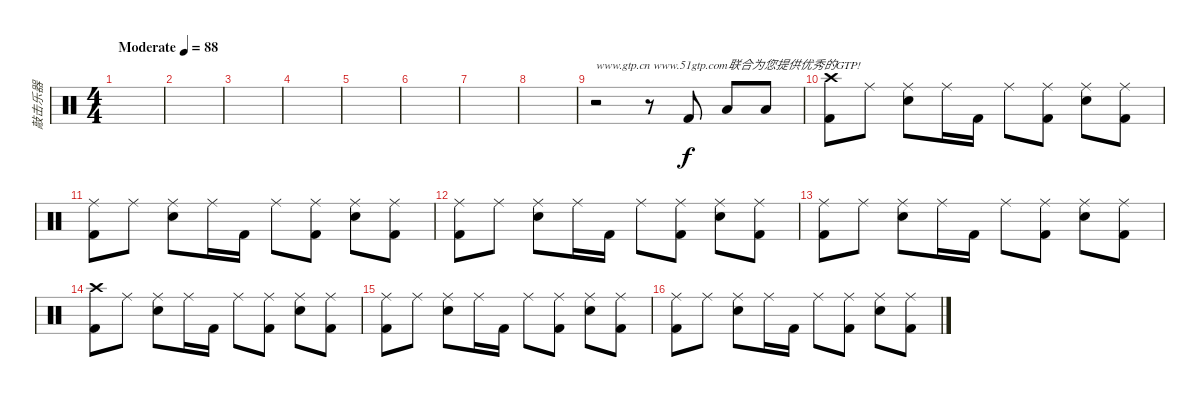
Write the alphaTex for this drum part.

\track ("敲击乐器" "敲击乐器") {instrument percussion}
\staff {score}
\articulation defaults
\ts (4 4)
\tempo (88 "Moderate")
\clef neutral
\ks c
|
|
|
|
|
|
|
|
r.2{txt "www.gtp.cn www.51gtp.com联合为您提供优秀的GTP!"} r.8 "Kick (hit) 2".8 "Low Floor Tom (hit)".8 "Low Tom (hit)".8 |
("Crash high (hit)" "Kick (hit) 2").8 "Ride (middle)".8 ("Ride (middle)" "Electric Snare (hit)").8 "Ride (middle)".16 "Kick (hit) 2".16 "Ride (middle)".8 ("Ride (middle)" "Kick (hit) 2").8 ("Ride (middle)" "Electric Snare (hit)").8 ("Ride (middle)" "Kick (hit) 2").8 |
("Ride (middle)" "Kick (hit) 2").8 "Ride (middle)".8 ("Ride (middle)" "Electric Snare (hit)").8 "Ride (middle)".16 "Kick (hit) 2".16 "Ride (middle)".8 ("Ride (middle)" "Kick (hit) 2").8 ("Ride (middle)" "Electric Snare (hit)").8 ("Ride (middle)" "Kick (hit) 2").8 |
("Ride (middle)" "Kick (hit) 2").8 "Ride (middle)".8 ("Ride (middle)" "Electric Snare (hit)").8 "Ride (middle)".16 "Kick (hit) 2".16 "Ride (middle)".8 ("Ride (middle)" "Kick (hit) 2").8 ("Ride (middle)" "Electric Snare (hit)").8 ("Ride (middle)" "Kick (hit) 2").8 |
("Ride (middle)" "Kick (hit) 2").8 "Ride (middle)".8 ("Ride (middle)" "Electric Snare (hit)").8 "Ride (middle)".16 "Kick (hit) 2".16 "Ride (middle)".8 ("Ride (middle)" "Kick (hit) 2").8 ("Ride (middle)" "Electric Snare (hit)").8 ("Ride (middle)" "Kick (hit) 2").8 |
("Crash high (hit)" "Kick (hit) 2").8 "Ride (middle)".8 ("Ride (middle)" "Electric Snare (hit)").8 "Ride (middle)".16 "Kick (hit) 2".16 "Ride (middle)".8 ("Ride (middle)" "Kick (hit) 2").8 ("Ride (middle)" "Electric Snare (hit)").8 ("Ride (middle)" "Kick (hit) 2").8 |
("Ride (middle)" "Kick (hit) 2").8 "Ride (middle)".8 ("Ride (middle)" "Electric Snare (hit)").8 "Ride (middle)".16 "Kick (hit) 2".16 "Ride (middle)".8 ("Ride (middle)" "Kick (hit) 2").8 ("Ride (middle)" "Electric Snare (hit)").8 ("Ride (middle)" "Kick (hit) 2").8 |
("Ride (middle)" "Kick (hit) 2").8 "Ride (middle)".8 ("Ride (middle)" "Electric Snare (hit)").8 "Ride (middle)".16 "Kick (hit) 2".16 "Ride (middle)".8 ("Ride (middle)" "Kick (hit) 2").8 ("Ride (middle)" "Electric Snare (hit)").8 ("Ride (middle)" "Kick (hit) 2").8
